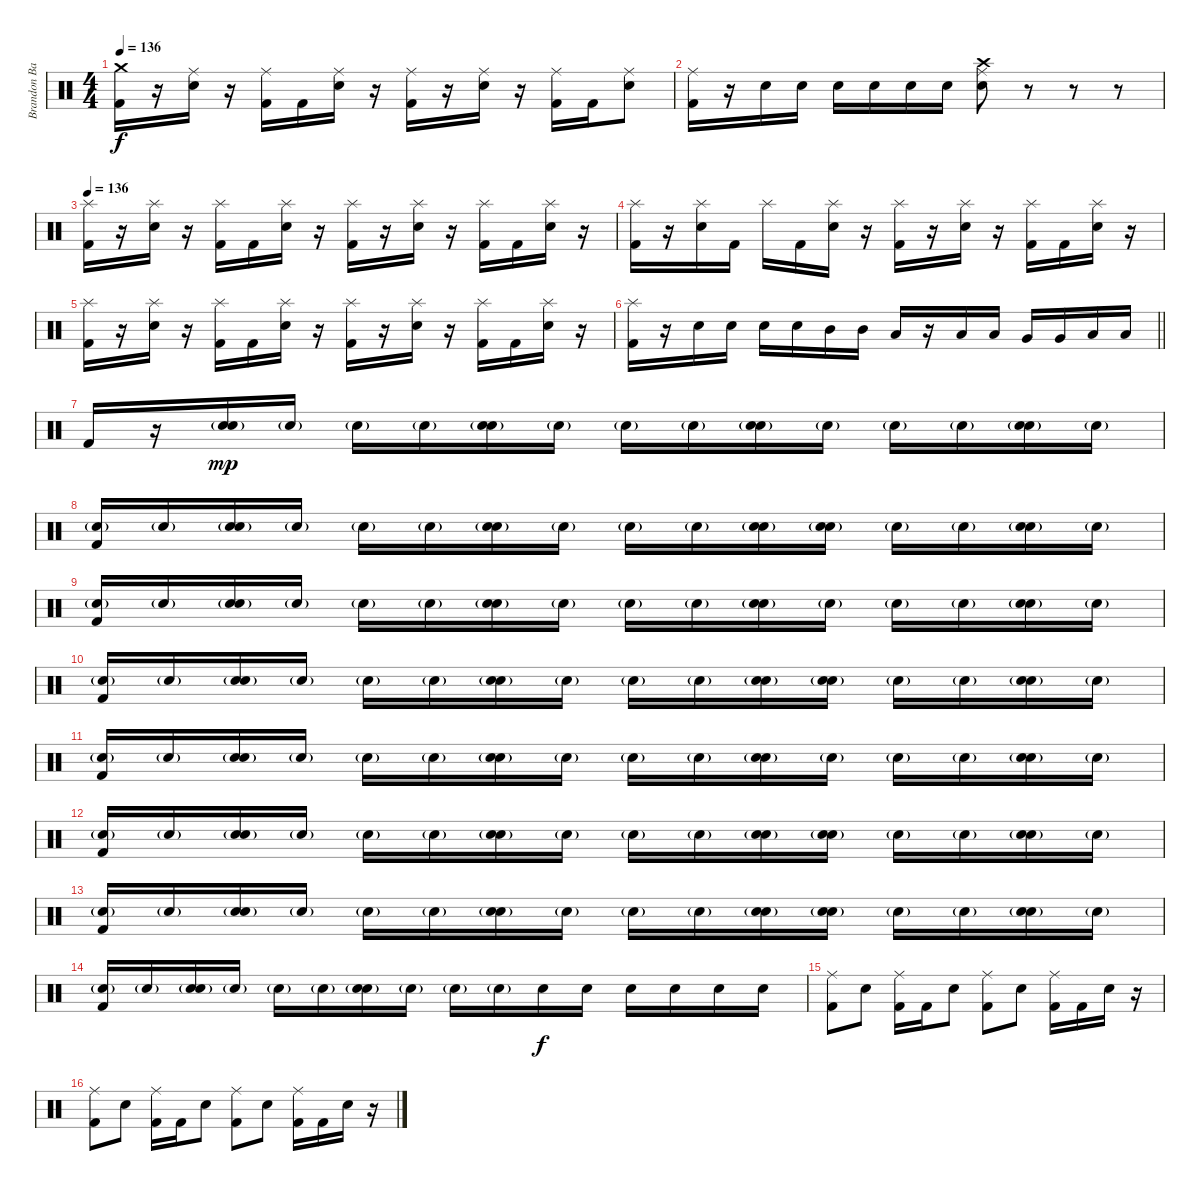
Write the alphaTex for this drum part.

\track ("Brandon Barnes (Drums)" "Brandon Ba") {instrument percussion}
\staff {score}
\articulation defaults
\ts (4 4)
\tempo 136
\clef neutral
\ks c
("Kick (hit) 2" "Crash medium (hit)").16{dy f} r.16 ("Ride (middle)" "Snare (hit) 2").16 r.16 ("Ride (middle)" "Kick (hit) 2").16 "Kick (hit) 2".16 ("Ride (middle)" "Snare (hit) 2").16 r.16 ("Ride (middle)" "Kick (hit) 2").16 r.16 ("Ride (middle)" "Snare (hit) 2").16 r.16 ("Ride (middle)" "Kick (hit) 2").16 "Kick (hit) 2".16 ("Ride (middle)" "Snare (hit) 2").8 |
("Ride (middle)" "Kick (hit) 2").16 r.16 "Snare (hit) 2".16 "Snare (hit) 2".16 "Snare (hit) 2".16 "Snare (hit) 2".16 "Snare (hit) 2".16 "Snare (hit) 2".16 ("Ride (middle)" "Snare (hit) 2" "Crash high (hit)").8 r.8 r.8 r.8 |
\tempo 136
("Splash (hit)" "Kick (hit) 2").16 r.16 ("Splash (hit)" "Snare (hit) 2").16 r.16 ("Splash (hit)" "Kick (hit) 2").16 "Kick (hit) 2".16 ("Splash (hit)" "Snare (hit) 2").16 r.16 ("Splash (hit)" "Kick (hit) 2").16 r.16 ("Splash (hit)" "Snare (hit) 2").16 r.16 ("Splash (hit)" "Kick (hit) 2").16 "Kick (hit) 2".16 ("Splash (hit)" "Snare (hit) 2").16 r.16 |
("Splash (hit)" "Kick (hit) 2").16 r.16 ("Splash (hit)" "Snare (hit) 2").16 "Kick (hit) 2".16 "Splash (hit)".16 "Kick (hit) 2".16 ("Splash (hit)" "Snare (hit) 2").16 r.16 ("Splash (hit)" "Kick (hit) 2").16 r.16 ("Splash (hit)" "Snare (hit) 2").16 r.16 ("Splash (hit)" "Kick (hit) 2").16 "Kick (hit) 2".16 ("Splash (hit)" "Snare (hit) 2").16 r.16 |
("Splash (hit)" "Kick (hit) 2").16 r.16 ("Splash (hit)" "Snare (hit) 2").16 r.16 ("Splash (hit)" "Kick (hit) 2").16 "Kick (hit) 2".16 ("Splash (hit)" "Snare (hit) 2").16 r.16 ("Splash (hit)" "Kick (hit) 2").16 r.16 ("Splash (hit)" "Snare (hit) 2").16 r.16 ("Splash (hit)" "Kick (hit) 2").16 "Kick (hit) 2".16 ("Splash (hit)" "Snare (hit) 2").16 r.16 |
\barLineRight lightlight
("Splash (hit)" "Kick (hit) 2").16 r.16 "Snare (hit) 2".16 "Snare (hit) 2".16 "Snare (hit) 2".16 "Snare (hit) 2".16 "Mid Tom (hit)".16 "Mid Tom (hit)".16 "Low Tom (hit)".16 r.16 "Low Tom (hit)".16 "Low Tom (hit)".16 "Very Low Tom (hit)".16 "Very Low Tom (hit)".16 "Low Floor Tom (hit)".16 "Low Floor Tom (hit)".16 |
"Kick (hit) 2".16 r.16 ("Snare (hit) 2"{g} "Snare (hit) 2").16{dy mp} "Snare (hit) 2"{g}.16 "Snare (hit) 2"{g}.16 "Snare (hit) 2"{g}.16 ("Snare (hit) 2"{g} "Snare (hit) 2").16 "Snare (hit) 2"{g}.16 "Snare (hit) 2"{g}.16 "Snare (hit) 2"{g}.16 ("Snare (hit) 2"{g} "Snare (hit) 2").16 "Snare (hit) 2"{g}.16 "Snare (hit) 2"{g}.16 "Snare (hit) 2"{g}.16 ("Snare (hit) 2"{g} "Snare (hit) 2").16 "Snare (hit) 2"{g}.16 |
("Snare (hit) 2"{g} "Kick (hit) 2").16 "Snare (hit) 2"{g}.16 ("Snare (hit) 2"{g} "Snare (hit) 2").16 "Snare (hit) 2"{g}.16 "Snare (hit) 2"{g}.16 "Snare (hit) 2"{g}.16 ("Snare (hit) 2"{g} "Snare (hit) 2").16 "Snare (hit) 2"{g}.16 "Snare (hit) 2"{g}.16 "Snare (hit) 2"{g}.16 ("Snare (hit) 2"{g} "Snare (hit) 2").16 ("Snare (hit) 2"{g} "Snare (hit) 2").16 "Snare (hit) 2"{g}.16 "Snare (hit) 2"{g}.16 ("Snare (hit) 2"{g} "Snare (hit) 2").16 "Snare (hit) 2"{g}.16 |
("Snare (hit) 2"{g} "Kick (hit) 2").16 "Snare (hit) 2"{g}.16 ("Snare (hit) 2"{g} "Snare (hit) 2").16 "Snare (hit) 2"{g}.16 "Snare (hit) 2"{g}.16 "Snare (hit) 2"{g}.16 ("Snare (hit) 2"{g} "Snare (hit) 2").16 "Snare (hit) 2"{g}.16 "Snare (hit) 2"{g}.16 "Snare (hit) 2"{g}.16 ("Snare (hit) 2"{g} "Snare (hit) 2").16 "Snare (hit) 2"{g}.16 "Snare (hit) 2"{g}.16 "Snare (hit) 2"{g}.16 ("Snare (hit) 2"{g} "Snare (hit) 2").16 "Snare (hit) 2"{g}.16 |
("Snare (hit) 2"{g} "Kick (hit) 2").16 "Snare (hit) 2"{g}.16 ("Snare (hit) 2"{g} "Snare (hit) 2").16 "Snare (hit) 2"{g}.16 "Snare (hit) 2"{g}.16 "Snare (hit) 2"{g}.16 ("Snare (hit) 2"{g} "Snare (hit) 2").16 "Snare (hit) 2"{g}.16 "Snare (hit) 2"{g}.16 "Snare (hit) 2"{g}.16 ("Snare (hit) 2"{g} "Snare (hit) 2").16 ("Snare (hit) 2"{g} "Snare (hit) 2").16 "Snare (hit) 2"{g}.16 "Snare (hit) 2"{g}.16 ("Snare (hit) 2"{g} "Snare (hit) 2").16 "Snare (hit) 2"{g}.16 |
("Snare (hit) 2"{g} "Kick (hit) 2").16 "Snare (hit) 2"{g}.16 ("Snare (hit) 2"{g} "Snare (hit) 2").16 "Snare (hit) 2"{g}.16 "Snare (hit) 2"{g}.16 "Snare (hit) 2"{g}.16 ("Snare (hit) 2"{g} "Snare (hit) 2").16 "Snare (hit) 2"{g}.16 "Snare (hit) 2"{g}.16 "Snare (hit) 2"{g}.16 ("Snare (hit) 2"{g} "Snare (hit) 2").16 "Snare (hit) 2"{g}.16 "Snare (hit) 2"{g}.16 "Snare (hit) 2"{g}.16 ("Snare (hit) 2"{g} "Snare (hit) 2").16 "Snare (hit) 2"{g}.16 |
("Snare (hit) 2"{g} "Kick (hit) 2").16 "Snare (hit) 2"{g}.16 ("Snare (hit) 2"{g} "Snare (hit) 2").16 "Snare (hit) 2"{g}.16 "Snare (hit) 2"{g}.16 "Snare (hit) 2"{g}.16 ("Snare (hit) 2"{g} "Snare (hit) 2").16 "Snare (hit) 2"{g}.16 "Snare (hit) 2"{g}.16 "Snare (hit) 2"{g}.16 ("Snare (hit) 2"{g} "Snare (hit) 2").16 ("Snare (hit) 2"{g} "Snare (hit) 2").16 "Snare (hit) 2"{g}.16 "Snare (hit) 2"{g}.16 ("Snare (hit) 2"{g} "Snare (hit) 2").16 "Snare (hit) 2"{g}.16 |
("Snare (hit) 2"{g} "Kick (hit) 2").16 "Snare (hit) 2"{g}.16 ("Snare (hit) 2"{g} "Snare (hit) 2").16 "Snare (hit) 2"{g}.16 "Snare (hit) 2"{g}.16 "Snare (hit) 2"{g}.16 ("Snare (hit) 2"{g} "Snare (hit) 2").16 "Snare (hit) 2"{g}.16 "Snare (hit) 2"{g}.16 "Snare (hit) 2"{g}.16 ("Snare (hit) 2"{g} "Snare (hit) 2").16 ("Snare (hit) 2"{g} "Snare (hit) 2").16 "Snare (hit) 2"{g}.16 "Snare (hit) 2"{g}.16 ("Snare (hit) 2"{g} "Snare (hit) 2").16 "Snare (hit) 2"{g}.16 |
("Snare (hit) 2"{g} "Kick (hit) 2").16 "Snare (hit) 2"{g}.16 ("Snare (hit) 2"{g} "Snare (hit) 2").16 "Snare (hit) 2"{g}.16 "Snare (hit) 2"{g}.16 "Snare (hit) 2"{g}.16 ("Snare (hit) 2"{g} "Snare (hit) 2").16 "Snare (hit) 2"{g}.16 "Snare (hit) 2"{g}.16 "Snare (hit) 2"{g}.16 "Snare (hit) 2".16{dy f} "Snare (hit) 2".16 "Snare (hit) 2".16 "Snare (hit) 2".16 "Snare (hit) 2".16 "Snare (hit) 2".16 |
("Ride (middle)" "Kick (hit) 2").8 "Snare (hit) 2".8 ("Ride (middle)" "Kick (hit) 2").16 "Kick (hit) 2".16 "Snare (hit) 2".8 ("Ride (middle)" "Kick (hit) 2").8 "Snare (hit) 2".8 ("Ride (middle)" "Kick (hit) 2").16 "Kick (hit) 2".16 "Snare (hit) 2".16 r.16 |
("Ride (middle)" "Kick (hit) 2").8 "Snare (hit) 2".8 ("Ride (middle)" "Kick (hit) 2").16 "Kick (hit) 2".16 "Snare (hit) 2".8 ("Ride (middle)" "Kick (hit) 2").8 "Snare (hit) 2".8 ("Ride (middle)" "Kick (hit) 2").16 "Kick (hit) 2".16 "Snare (hit) 2".16 r.16
